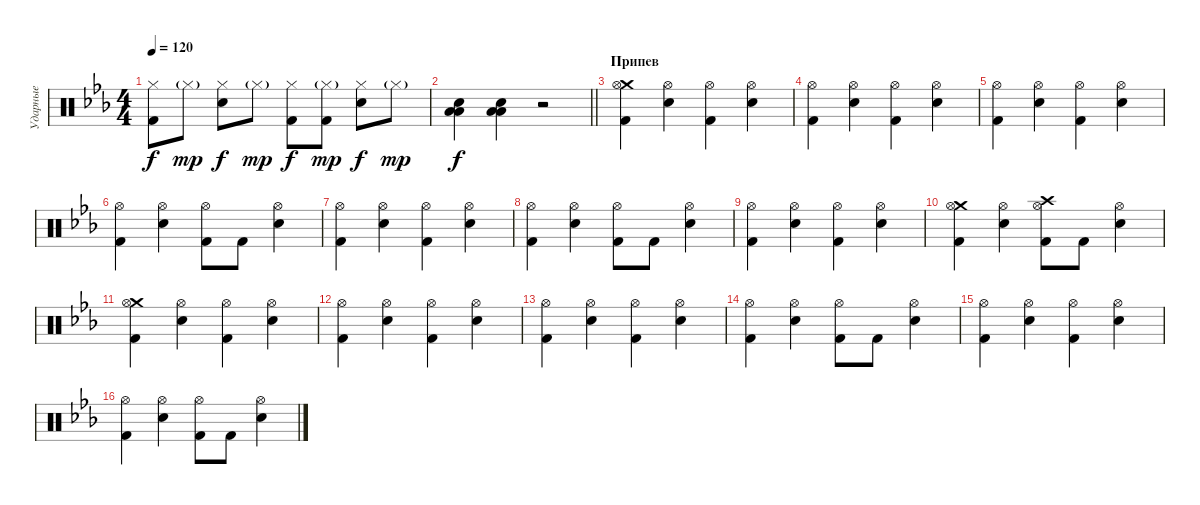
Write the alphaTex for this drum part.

\track ("Ударные" "Ударные") {instrument percussion}
\staff {score}
\articulation defaults
\ts (4 4)
\tempo 120
\clef neutral
\ks cminor
("Kick (hit) 2" "Hi-Hat (closed)").8{dy f} "Hi-Hat (closed)"{g}.8{dy mp} ("Electric Snare (hit)" "Hi-Hat (closed)").8{dy f} "Hi-Hat (closed)"{g}.8{dy mp} ("Kick (hit) 2" "Hi-Hat (closed)").8{dy f} ("Kick (hit) 2" "Hi-Hat (closed)"{g}).8{dy mp} ("Electric Snare (hit)" "Hi-Hat (closed)").8{dy f} "Hi-Hat (closed)"{g}.8{dy mp} |
\barLineRight lightlight
("Low Tom (hit)" "Low Floor Tom (hit)" "Electric Snare (hit)").4{dy f} ("Low Tom (hit)" "Low Floor Tom (hit)" "Electric Snare (hit)").4 r.2 |
\section ("" "Припев")
("Crash medium (hit)" "Kick (hit) 2" "Hi-Hat (open)").4 ("Electric Snare (hit)" "Hi-Hat (open)").4 ("Kick (hit) 2" "Hi-Hat (open)").4 ("Electric Snare (hit)" "Hi-Hat (open)").4 |
("Kick (hit) 2" "Hi-Hat (open)").4 ("Electric Snare (hit)" "Hi-Hat (open)").4 ("Kick (hit) 2" "Hi-Hat (open)").4 ("Electric Snare (hit)" "Hi-Hat (open)").4 |
("Kick (hit) 2" "Hi-Hat (open)").4 ("Electric Snare (hit)" "Hi-Hat (open)").4 ("Kick (hit) 2" "Hi-Hat (open)").4 ("Electric Snare (hit)" "Hi-Hat (open)").4 |
("Kick (hit) 2" "Hi-Hat (open)").4 ("Electric Snare (hit)" "Hi-Hat (open)").4 ("Kick (hit) 2" "Hi-Hat (open)").8 "Kick (hit) 2".8 ("Electric Snare (hit)" "Hi-Hat (open)").4 |
("Kick (hit) 2" "Hi-Hat (open)").4 ("Electric Snare (hit)" "Hi-Hat (open)").4 ("Kick (hit) 2" "Hi-Hat (open)").4 ("Electric Snare (hit)" "Hi-Hat (open)").4 |
("Kick (hit) 2" "Hi-Hat (open)").4 ("Electric Snare (hit)" "Hi-Hat (open)").4 ("Kick (hit) 2" "Hi-Hat (open)").8 "Kick (hit) 2".8 ("Electric Snare (hit)" "Hi-Hat (open)").4 |
("Kick (hit) 2" "Hi-Hat (open)").4 ("Electric Snare (hit)" "Hi-Hat (open)").4 ("Kick (hit) 2" "Hi-Hat (open)").4 ("Electric Snare (hit)" "Hi-Hat (open)").4 |
("Crash medium (hit)" "Kick (hit) 2" "Hi-Hat (open)").4 ("Electric Snare (hit)" "Hi-Hat (open)").4 ("Crash high (hit)" "Kick (hit) 2" "Hi-Hat (open)").8 "Kick (hit) 2".8 ("Electric Snare (hit)" "Hi-Hat (open)").4 |
("Crash medium (hit)" "Kick (hit) 2" "Hi-Hat (open)").4 ("Electric Snare (hit)" "Hi-Hat (open)").4 ("Kick (hit) 2" "Hi-Hat (open)").4 ("Electric Snare (hit)" "Hi-Hat (open)").4 |
("Kick (hit) 2" "Hi-Hat (open)").4 ("Electric Snare (hit)" "Hi-Hat (open)").4 ("Kick (hit) 2" "Hi-Hat (open)").4 ("Electric Snare (hit)" "Hi-Hat (open)").4 |
("Kick (hit) 2" "Hi-Hat (open)").4 ("Electric Snare (hit)" "Hi-Hat (open)").4 ("Kick (hit) 2" "Hi-Hat (open)").4 ("Electric Snare (hit)" "Hi-Hat (open)").4 |
("Kick (hit) 2" "Hi-Hat (open)").4 ("Electric Snare (hit)" "Hi-Hat (open)").4 ("Kick (hit) 2" "Hi-Hat (open)").8 "Kick (hit) 2".8 ("Electric Snare (hit)" "Hi-Hat (open)").4 |
("Kick (hit) 2" "Hi-Hat (open)").4 ("Electric Snare (hit)" "Hi-Hat (open)").4 ("Kick (hit) 2" "Hi-Hat (open)").4 ("Electric Snare (hit)" "Hi-Hat (open)").4 |
("Kick (hit) 2" "Hi-Hat (open)").4 ("Electric Snare (hit)" "Hi-Hat (open)").4 ("Kick (hit) 2" "Hi-Hat (open)").8 "Kick (hit) 2".8 ("Electric Snare (hit)" "Hi-Hat (open)").4
